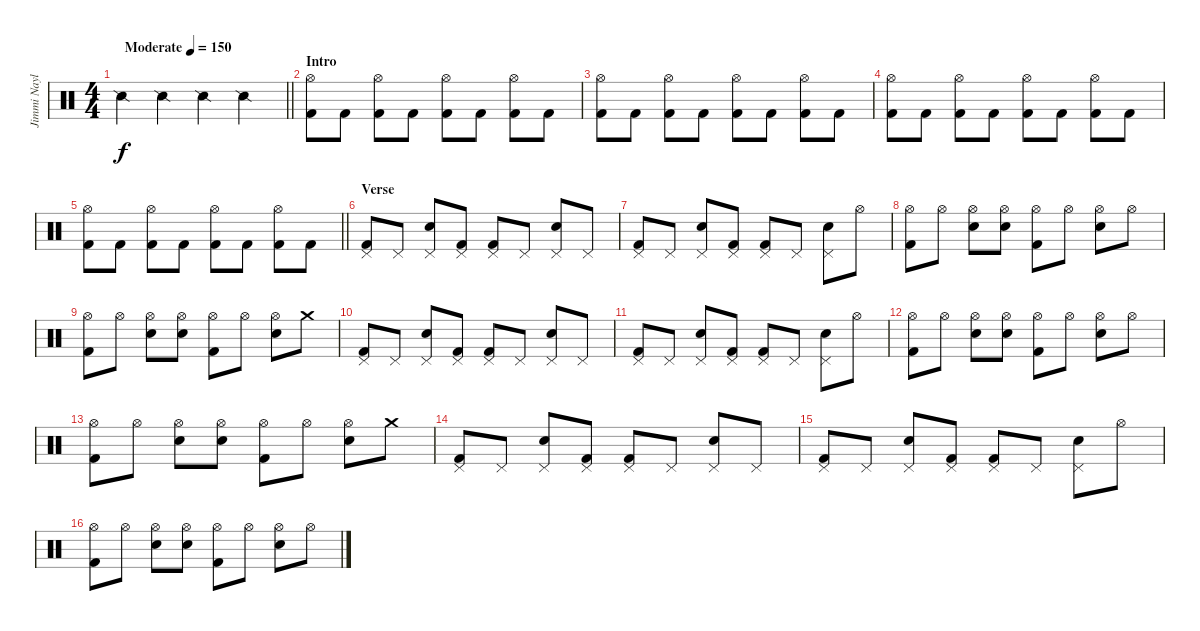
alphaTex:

\track ("Jimmi Naylor" "Jimmi Nayl") {instrument percussion}
\staff {score}
\articulation defaults
\ts (4 4)
\tempo (150 "Moderate")
\clef neutral
\barLineRight lightlight
\ks c "Snare (side stick) 2".4{dy f} "Snare (side stick) 2".4 "Snare (side stick) 2".4 "Snare (side stick) 2".4
|
\section ("" "Intro")
("Kick (hit) 2" "Hi-Hat (open)").8 "Kick (hit) 2".8 ("Kick (hit) 2" "Hi-Hat (open)").8 "Kick (hit) 2".8 ("Kick (hit) 2" "Hi-Hat (open)").8 "Kick (hit) 2".8 ("Kick (hit) 2" "Hi-Hat (open)").8 "Kick (hit) 2".8 |
("Kick (hit) 2" "Hi-Hat (open)").8 "Kick (hit) 2".8 ("Kick (hit) 2" "Hi-Hat (open)").8 "Kick (hit) 2".8 ("Kick (hit) 2" "Hi-Hat (open)").8 "Kick (hit) 2".8 ("Kick (hit) 2" "Hi-Hat (open)").8 "Kick (hit) 2".8 |
("Kick (hit) 2" "Hi-Hat (open)").8 "Kick (hit) 2".8 ("Kick (hit) 2" "Hi-Hat (open)").8 "Kick (hit) 2".8 ("Kick (hit) 2" "Hi-Hat (open)").8 "Kick (hit) 2".8 ("Kick (hit) 2" "Hi-Hat (open)").8 "Kick (hit) 2".8 |
\barLineRight lightlight
("Kick (hit) 2" "Hi-Hat (open)").8 "Kick (hit) 2".8 ("Kick (hit) 2" "Hi-Hat (open)").8 "Kick (hit) 2".8 ("Kick (hit) 2" "Hi-Hat (open)").8 "Kick (hit) 2".8 ("Kick (hit) 2" "Hi-Hat (open)").8 "Kick (hit) 2".8 |
\section ("" "Verse")
("Kick (hit) 2" "Pedal Hi-Hat (hit)").8 "Pedal Hi-Hat (hit)".8 ("Electric Snare (hit)" "Pedal Hi-Hat (hit)").8 ("Kick (hit) 2" "Pedal Hi-Hat (hit)").8 ("Kick (hit) 2" "Pedal Hi-Hat (hit)").8 "Pedal Hi-Hat (hit)".8 ("Electric Snare (hit)" "Pedal Hi-Hat (hit)").8 "Pedal Hi-Hat (hit)".8 |
("Kick (hit) 2" "Pedal Hi-Hat (hit)").8 "Pedal Hi-Hat (hit)".8 ("Electric Snare (hit)" "Pedal Hi-Hat (hit)").8 ("Kick (hit) 2" "Pedal Hi-Hat (hit)").8 ("Kick (hit) 2" "Pedal Hi-Hat (hit)").8 "Pedal Hi-Hat (hit)".8 ("Electric Snare (hit)" "Pedal Hi-Hat (hit)").8 "Hi-Hat (open)".8 |
("Kick (hit) 2" "Hi-Hat (open)").8 "Hi-Hat (open)".8 ("Snare (hit) 2" "Hi-Hat (open)").8 ("Snare (hit) 2" "Hi-Hat (open)").8 ("Kick (hit) 2" "Hi-Hat (open)").8 "Hi-Hat (open)".8 ("Snare (hit) 2" "Hi-Hat (open)").8 "Hi-Hat (open)".8 |
("Kick (hit) 2" "Hi-Hat (open)").8 "Hi-Hat (open)".8 ("Snare (hit) 2" "Hi-Hat (open)").8 ("Snare (hit) 2" "Hi-Hat (open)").8 ("Kick (hit) 2" "Hi-Hat (open)").8 "Hi-Hat (open)".8 ("Snare (hit) 2" "Hi-Hat (open)").8 "Crash medium (hit)".8 |
("Kick (hit) 2" "Pedal Hi-Hat (hit)").8 "Pedal Hi-Hat (hit)".8 ("Electric Snare (hit)" "Pedal Hi-Hat (hit)").8 ("Kick (hit) 2" "Pedal Hi-Hat (hit)").8 ("Kick (hit) 2" "Pedal Hi-Hat (hit)").8 "Pedal Hi-Hat (hit)".8 ("Electric Snare (hit)" "Pedal Hi-Hat (hit)").8 "Pedal Hi-Hat (hit)".8 |
("Kick (hit) 2" "Pedal Hi-Hat (hit)").8 "Pedal Hi-Hat (hit)".8 ("Electric Snare (hit)" "Pedal Hi-Hat (hit)").8 ("Kick (hit) 2" "Pedal Hi-Hat (hit)").8 ("Kick (hit) 2" "Pedal Hi-Hat (hit)").8 "Pedal Hi-Hat (hit)".8 ("Electric Snare (hit)" "Pedal Hi-Hat (hit)").8 "Hi-Hat (open)".8 |
("Kick (hit) 2" "Hi-Hat (open)").8 "Hi-Hat (open)".8 ("Snare (hit) 2" "Hi-Hat (open)").8 ("Snare (hit) 2" "Hi-Hat (open)").8 ("Kick (hit) 2" "Hi-Hat (open)").8 "Hi-Hat (open)".8 ("Snare (hit) 2" "Hi-Hat (open)").8 "Hi-Hat (open)".8 |
("Kick (hit) 2" "Hi-Hat (open)").8 "Hi-Hat (open)".8 ("Snare (hit) 2" "Hi-Hat (open)").8 ("Snare (hit) 2" "Hi-Hat (open)").8 ("Kick (hit) 2" "Hi-Hat (open)").8 "Hi-Hat (open)".8 ("Snare (hit) 2" "Hi-Hat (open)").8 "Crash medium (hit)".8 |
("Kick (hit) 2" "Pedal Hi-Hat (hit)").8 "Pedal Hi-Hat (hit)".8 ("Electric Snare (hit)" "Pedal Hi-Hat (hit)").8 ("Kick (hit) 2" "Pedal Hi-Hat (hit)").8 ("Kick (hit) 2" "Pedal Hi-Hat (hit)").8 "Pedal Hi-Hat (hit)".8 ("Electric Snare (hit)" "Pedal Hi-Hat (hit)").8 "Pedal Hi-Hat (hit)".8 |
("Kick (hit) 2" "Pedal Hi-Hat (hit)").8 "Pedal Hi-Hat (hit)".8 ("Electric Snare (hit)" "Pedal Hi-Hat (hit)").8 ("Kick (hit) 2" "Pedal Hi-Hat (hit)").8 ("Kick (hit) 2" "Pedal Hi-Hat (hit)").8 "Pedal Hi-Hat (hit)".8 ("Electric Snare (hit)" "Pedal Hi-Hat (hit)").8 "Hi-Hat (open)".8 |
("Kick (hit) 2" "Hi-Hat (open)").8 "Hi-Hat (open)".8 ("Snare (hit) 2" "Hi-Hat (open)").8 ("Snare (hit) 2" "Hi-Hat (open)").8 ("Kick (hit) 2" "Hi-Hat (open)").8 "Hi-Hat (open)".8 ("Snare (hit) 2" "Hi-Hat (open)").8 "Hi-Hat (open)".8
